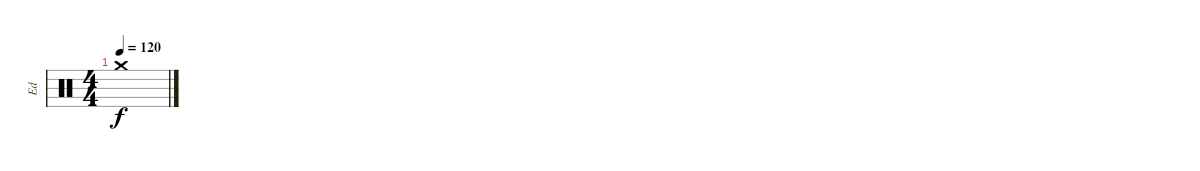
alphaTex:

\track ("Ed" "Ed") {instrument percussion}
\staff {score}
\articulation defaults
\ts (4 4)
\tempo 120
\clef neutral
\ks c "Crash medium (hit)"{t}.1{dy f}
